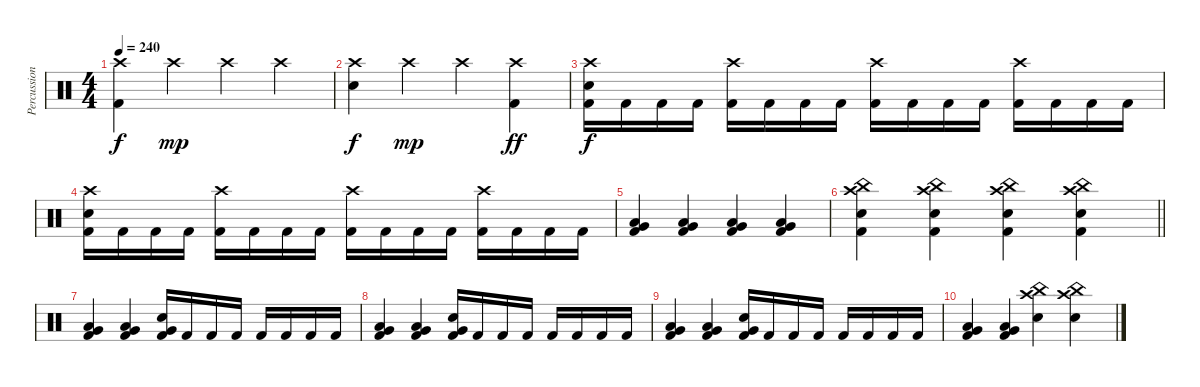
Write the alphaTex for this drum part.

\track ("Percussion" "Percussion") {instrument percussion}
\staff {score}
\articulation defaults
\ts (4 4)
\tempo 240
\clef neutral
\ks c
("Crash high (hit)" "Kick (hit) 2").4{dy f} "Crash high (hit)".4{dy mp} "Crash high (hit)".4 "Crash high (hit)".4 |
("Crash high (hit)" "Snare (hit) 2").4{dy f} "Crash high (hit)".4{dy mp} "Crash high (hit)".4 ("Crash high (hit)" "Kick (hit) 2").4{dy ff} |
("Crash high (hit)" "Snare (hit) 2" "Kick (hit) 2").16{dy f} "Kick (hit) 2".16 "Kick (hit) 2".16 "Kick (hit) 2".16 ("Crash high (hit)" "Kick (hit) 2").16 "Kick (hit) 2".16 "Kick (hit) 2".16 "Kick (hit) 2".16 ("Crash high (hit)" "Kick (hit) 2").16 "Kick (hit) 2".16 "Kick (hit) 2".16 "Kick (hit) 2".16 ("Crash high (hit)" "Kick (hit) 2").16 "Kick (hit) 2".16 "Kick (hit) 2".16 "Kick (hit) 2".16 |
("Crash high (hit)" "Snare (hit) 2" "Kick (hit) 2").16 "Kick (hit) 2".16 "Kick (hit) 2".16 "Kick (hit) 2".16 ("Crash high (hit)" "Kick (hit) 2").16 "Kick (hit) 2".16 "Kick (hit) 2".16 "Kick (hit) 2".16 ("Crash high (hit)" "Kick (hit) 2").16 "Kick (hit) 2".16 "Kick (hit) 2".16 "Kick (hit) 2".16 ("Crash high (hit)" "Kick (hit) 2").16 "Kick (hit) 2".16 "Kick (hit) 2".16 "Kick (hit) 2".16 |
("Very Low Tom (hit)" "Low Floor Tom (hit)" "Kick (hit) 2").4 ("Very Low Tom (hit)" "Low Floor Tom (hit)" "Kick (hit) 2").4 ("Very Low Tom (hit)" "Low Floor Tom (hit)" "Kick (hit) 2").4 ("Very Low Tom (hit)" "Low Floor Tom (hit)" "Kick (hit) 2").4 |
\barLineRight lightlight
("China (hit)" "Crash high (hit)" "Snare (hit) 2" "Kick (hit) 2").4 ("China (hit)" "Crash high (hit)" "Snare (hit) 2" "Kick (hit) 2").4 ("China (hit)" "Crash high (hit)" "Snare (hit) 2" "Kick (hit) 2").4 ("China (hit)" "Crash high (hit)" "Snare (hit) 2" "Kick (hit) 2").4 |
("Very Low Tom (hit)" "Low Floor Tom (hit)" "Kick (hit) 2").4 ("Very Low Tom (hit)" "Low Floor Tom (hit)" "Kick (hit) 2").4 ("Snare (hit) 2" "Very Low Tom (hit)" "Kick (hit) 2").16 "Kick (hit) 2".16 "Kick (hit) 2".16 "Kick (hit) 2".16 "Kick (hit) 2".16 "Kick (hit) 2".16 "Kick (hit) 2".16 "Kick (hit) 2".16 |
("Very Low Tom (hit)" "Low Floor Tom (hit)" "Kick (hit) 2").4 ("Very Low Tom (hit)" "Low Floor Tom (hit)" "Kick (hit) 2").4 ("Snare (hit) 2" "Very Low Tom (hit)" "Kick (hit) 2").16 "Kick (hit) 2".16 "Kick (hit) 2".16 "Kick (hit) 2".16 "Kick (hit) 2".16 "Kick (hit) 2".16 "Kick (hit) 2".16 "Kick (hit) 2".16 |
("Very Low Tom (hit)" "Low Floor Tom (hit)" "Kick (hit) 2").4 ("Very Low Tom (hit)" "Low Floor Tom (hit)" "Kick (hit) 2").4 ("Snare (hit) 2" "Very Low Tom (hit)" "Kick (hit) 2").16 "Kick (hit) 2".16 "Kick (hit) 2".16 "Kick (hit) 2".16 "Kick (hit) 2".16 "Kick (hit) 2".16 "Kick (hit) 2".16 "Kick (hit) 2".16 |
("Very Low Tom (hit)" "Low Floor Tom (hit)" "Kick (hit) 2").4 ("Very Low Tom (hit)" "Low Floor Tom (hit)" "Kick (hit) 2").4 ("China (hit)" "Crash high (hit)" "Snare (hit) 2").4 ("China (hit)" "Crash high (hit)" "Snare (hit) 2").4
